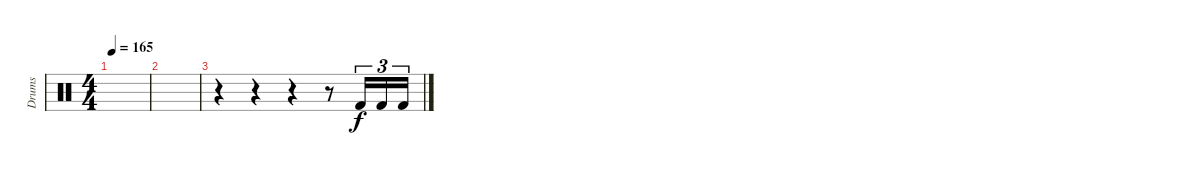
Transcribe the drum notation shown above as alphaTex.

\track ("Drums" "Drums") {instrument percussion}
\staff {score}
\articulation defaults
\ts (4 4)
\tempo 165
\clef neutral
\ks c
|
|
r.4 r.4 r.4 r.8 "Kick (hit) 2".16{tu (3 2)} "Kick (hit) 2".16{tu (3 2)} "Kick (hit) 2".16{tu (3 2)}
